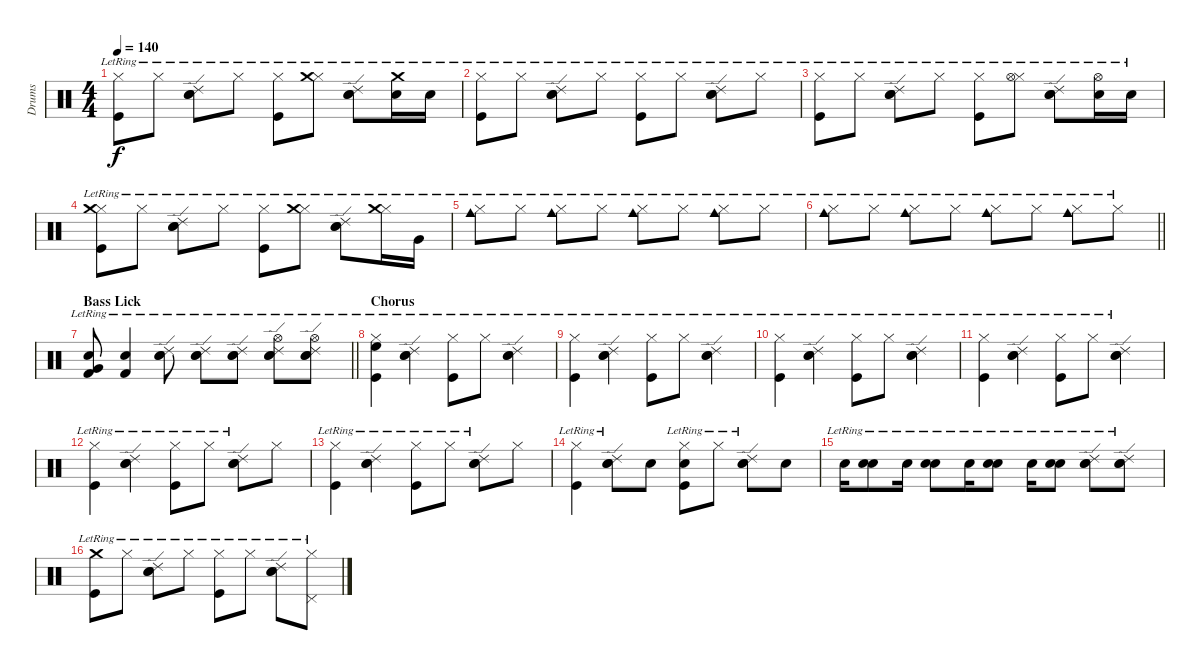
\track ("Drums" "Drums") {instrument percussion}
\staff {score}
\articulation defaults
\ts (4 4)
\tempo 140
\clef neutral
\ks c
("Hi-Hat (closed)"{lr} "Kick (hit)"{lr}).8{dy f} "Hi-Hat (closed)"{lr}.8 ("Electric Snare (hit)"{lr} "Ride (edge) 2"{lr} "Snare (hit) 2"{lr}).8 "Hi-Hat (closed)"{lr}.8 ("Hi-Hat (closed)"{lr} "Kick (hit)"{lr}).8 ("Hi-Hat (closed)"{lr} "Crash medium (hit)"{lr}).8 ("Electric Snare (hit)"{lr} "Ride (edge) 2"{lr} "Snare (hit) 2"{lr}).8 ("Crash medium (hit)"{lr} "Snare (hit) 2"{lr}).16 "Snare (hit) 2"{lr}.16 |
("Hi-Hat (closed)"{lr} "Kick (hit)"{lr}).8 "Hi-Hat (closed)"{lr}.8 ("Electric Snare (hit)"{lr} "Ride (edge) 2"{lr} "Snare (hit) 2"{lr}).8 "Hi-Hat (closed)"{lr}.8 ("Hi-Hat (closed)"{lr} "Kick (hit)"{lr}).8 "Hi-Hat (closed)"{lr}.8 ("Electric Snare (hit)"{lr} "Ride (edge) 2"{lr} "Snare (hit) 2"{lr}).8 "Hi-Hat (closed)"{lr}.8 |
("Hi-Hat (closed)"{lr} "Kick (hit)"{lr}).8 "Hi-Hat (closed)"{lr}.8 ("Electric Snare (hit)"{lr} "Ride (edge) 2"{lr} "Snare (hit) 2"{lr}).8 "Hi-Hat (closed)"{lr}.8 ("Hi-Hat (closed)"{lr} "Kick (hit)"{lr}).8 ("Hi-Hat (closed)"{lr} "Hi-Hat (open)"{lr}).8 ("Electric Snare (hit)"{lr} "Ride (edge) 2"{lr} "Snare (hit) 2"{lr}).8 ("Hi-Hat (open)"{lr} "Snare (hit) 2"{lr}).16 "Snare (hit) 2"{lr}.16 |
("Hi-Hat (closed)"{lr} "Crash medium (hit)"{lr} "Kick (hit)"{lr}).8 "Hi-Hat (closed)"{lr}.8 ("Electric Snare (hit)"{lr} "Ride (edge) 2"{lr} "Snare (hit) 2"{lr}).8 "Hi-Hat (closed)"{lr}.8 ("Hi-Hat (closed)"{lr} "Kick (hit)"{lr}).8 ("Hi-Hat (closed)"{lr} "Crash medium (hit)"{lr}).8 ("Electric Snare (hit)"{lr} "Ride (edge) 2"{lr} "Snare (hit) 2"{lr}).8 ("Hi-Hat (closed)"{lr} "Crash medium (hit)"{lr}).16 "Very Low Tom (hit)"{lr}.16 |
("Hi-Hat (closed)"{lr} "Cowbell medium (hit)"{lr}).8 "Hi-Hat (closed)"{lr}.8 ("Hi-Hat (closed)"{lr} "Cowbell medium (hit)"{lr}).8 "Hi-Hat (closed)"{lr}.8 ("Hi-Hat (closed)"{lr} "Cowbell medium (hit)"{lr}).8 "Hi-Hat (closed)"{lr}.8 ("Hi-Hat (closed)"{lr} "Cowbell medium (hit)"{lr}).8 "Hi-Hat (closed)"{lr}.8 |
\barLineRight lightlight
("Hi-Hat (closed)"{lr} "Cowbell medium (hit)"{lr}).8 "Hi-Hat (closed)"{lr}.8 ("Hi-Hat (closed)"{lr} "Cowbell medium (hit)"{lr}).8 "Hi-Hat (closed)"{lr}.8 ("Hi-Hat (closed)"{lr} "Cowbell medium (hit)"{lr}).8 "Hi-Hat (closed)"{lr}.8 ("Hi-Hat (closed)"{lr} "Cowbell medium (hit)"{lr}).8 "Hi-Hat (closed)"{lr}.8 |
\section ("" "Bass Lick")
\barLineRight lightlight
("Kick (hit) 2"{lr} "Very Low Tom (hit)"{lr} "Electric Snare (hit)"{lr}).8 ("Kick (hit) 2"{lr} "Electric Snare (hit)"{lr}).4 ("Snare (hit) 2"{lr} "Electric Snare (hit)"{lr} "Ride (edge) 2"{lr}).8 ("Snare (hit) 2"{lr} "Electric Snare (hit)"{lr} "Ride (edge) 2"{lr}).8 ("Snare (hit) 2"{lr} "Electric Snare (hit)"{lr} "Ride (edge) 2"{lr}).8 ("Snare (hit) 2"{lr} "Electric Snare (hit)"{lr} "Ride (edge) 2"{lr} "Hi-Hat (open)"{lr}).8 ("Snare (hit) 2"{lr} "Electric Snare (hit)"{lr} "Ride (edge) 2"{lr} "Hi-Hat (open)"{lr}).8 |
\section ("" "Chorus")
("Hi-Hat (closed)"{lr} "Kick (hit)"{lr} "High Floor Tom (hit)"{lr}).4 ("Electric Snare (hit)"{lr} "Ride (edge) 2"{lr} "Snare (hit) 2"{lr}).4 ("Hi-Hat (closed)"{lr} "Kick (hit)"{lr}).8 "Hi-Hat (closed)"{lr}.8 ("Electric Snare (hit)"{lr} "Ride (edge) 2"{lr} "Snare (hit) 2"{lr}).4 |
("Hi-Hat (closed)"{lr} "Kick (hit)"{lr}).4 ("Electric Snare (hit)"{lr} "Ride (edge) 2"{lr} "Snare (hit) 2"{lr}).4 ("Hi-Hat (closed)"{lr} "Kick (hit)"{lr}).8 "Hi-Hat (closed)"{lr}.8 ("Electric Snare (hit)"{lr} "Ride (edge) 2"{lr} "Snare (hit) 2"{lr}).4 |
("Hi-Hat (closed)"{lr} "Kick (hit)"{lr}).4 ("Electric Snare (hit)"{lr} "Ride (edge) 2"{lr} "Snare (hit) 2"{lr}).4 ("Hi-Hat (closed)"{lr} "Kick (hit)"{lr}).8 "Hi-Hat (closed)"{lr}.8 ("Electric Snare (hit)"{lr} "Ride (edge) 2"{lr} "Snare (hit) 2"{lr}).4 |
("Hi-Hat (closed)"{lr} "Kick (hit)"{lr}).4 ("Electric Snare (hit)"{lr} "Ride (edge) 2"{lr} "Snare (hit) 2"{lr}).4 ("Hi-Hat (closed)"{lr} "Kick (hit)"{lr}).8 "Hi-Hat (closed)"{lr}.8 ("Electric Snare (hit)"{lr} "Ride (edge) 2"{lr} "Snare (hit) 2"{lr}).4 |
("Hi-Hat (closed)"{lr} "Kick (hit)"{lr}).4 ("Electric Snare (hit)"{lr} "Ride (edge) 2"{lr} "Snare (hit) 2"{lr}).4 ("Hi-Hat (closed)"{lr} "Kick (hit)"{lr}).8 "Hi-Hat (closed)"{lr}.8 ("Electric Snare (hit)"{lr} "Ride (edge) 2"{lr} "Snare (hit) 2"{lr}).8 "Hi-Hat (closed)".8 |
("Hi-Hat (closed)"{lr} "Kick (hit)"{lr}).4 ("Electric Snare (hit)"{lr} "Ride (edge) 2"{lr} "Snare (hit) 2"{lr}).4 ("Hi-Hat (closed)"{lr} "Kick (hit)"{lr}).8 "Hi-Hat (closed)"{lr}.8 ("Electric Snare (hit)"{lr} "Ride (edge) 2"{lr} "Snare (hit) 2"{lr}).8 "Hi-Hat (closed)".8 |
("Hi-Hat (closed)"{lr} "Kick (hit)"{lr}).4 ("Electric Snare (hit)"{lr} "Ride (edge) 2"{lr} "Snare (hit) 2"{lr}).8 "Snare (hit) 2".8 ("Hi-Hat (closed)"{lr} "Electric Snare (hit)" "Kick (hit)"{lr}).8 "Hi-Hat (closed)"{lr}.8 ("Electric Snare (hit)"{lr} "Ride (edge) 2"{lr} "Snare (hit) 2"{lr}).8 "Snare (hit) 2".8 |
"Snare (hit) 2"{lr}.16 ("Snare (hit) 2"{lr} "Electric Snare (hit)"{lr}).8 "Snare (hit) 2"{lr}.16 ("Snare (hit) 2"{lr} "Electric Snare (hit)"{lr}).8 "Snare (hit) 2"{lr}.16 ("Snare (hit) 2"{lr} "Electric Snare (hit)"{lr}).8 "Snare (hit) 2"{lr}.16 ("Snare (hit) 2"{lr} "Electric Snare (hit)"{lr}).8 ("Snare (hit) 2"{lr} "Electric Snare (hit)"{lr} "Ride (edge) 2"{lr}).8 ("Snare (hit) 2"{lr} "Electric Snare (hit)"{lr} "Ride (edge) 2"{lr}).8 |
("Crash medium (hit)"{lr} "Kick (hit)"{lr}).8 "Hi-Hat (closed)"{lr}.8 ("Electric Snare (hit)"{lr} "Ride (edge) 2"{lr} "Snare (hit) 2"{lr}).8 "Hi-Hat (closed)"{lr}.8 ("Hi-Hat (closed)"{lr} "Kick (hit)"{lr}).8 "Hi-Hat (closed)"{lr}.8 ("Electric Snare (hit)"{lr} "Ride (edge) 2"{lr} "Snare (hit) 2"{lr}).8 ("Hi-Hat (closed)"{lr} "Pedal Hi-Hat (hit)"{lr}).8
